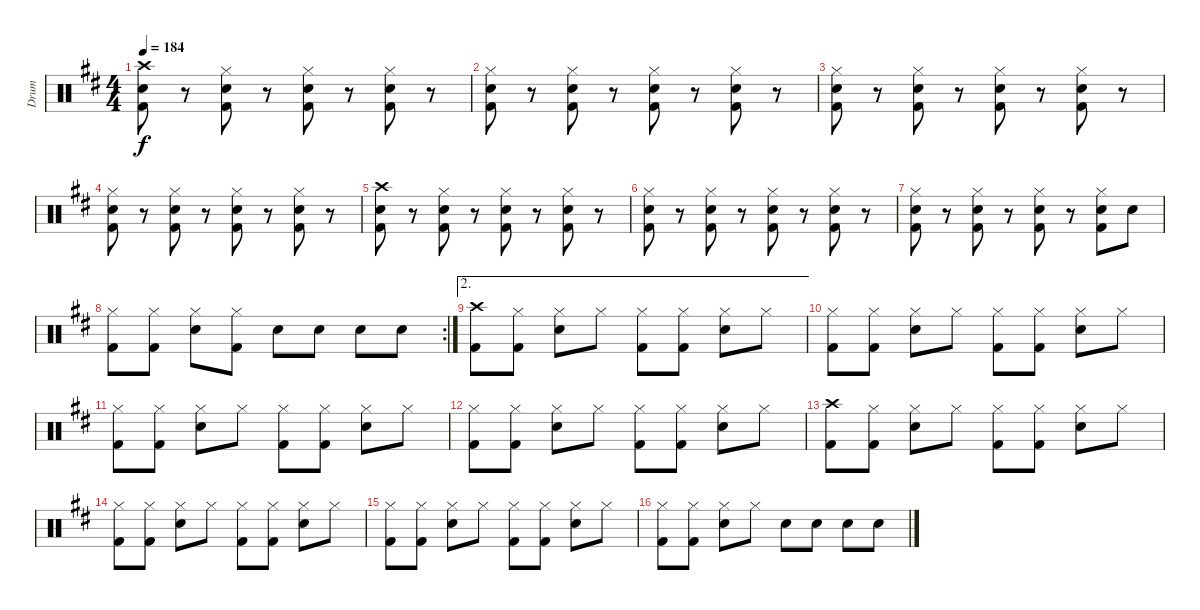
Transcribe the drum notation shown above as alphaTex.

\track ("Drum" "Drum") {instrument percussion}
\staff {score}
\articulation defaults
\ts (4 4)
\tempo 184
\clef neutral
\ks d
("Crash high (hit)" "Electric Snare (hit)" "Kick (hit) 2").8{dy f} r.8 ("Hi-Hat (closed)" "Electric Snare (hit)" "Kick (hit) 2").8 r.8 ("Hi-Hat (closed)" "Electric Snare (hit)" "Kick (hit) 2").8 r.8 ("Hi-Hat (closed)" "Electric Snare (hit)" "Kick (hit) 2").8 r.8 |
("Hi-Hat (closed)" "Electric Snare (hit)" "Kick (hit) 2").8 r.8 ("Hi-Hat (closed)" "Electric Snare (hit)" "Kick (hit) 2").8 r.8 ("Hi-Hat (closed)" "Electric Snare (hit)" "Kick (hit) 2").8 r.8 ("Hi-Hat (closed)" "Electric Snare (hit)" "Kick (hit) 2").8 r.8 |
("Hi-Hat (closed)" "Electric Snare (hit)" "Kick (hit) 2").8 r.8 ("Hi-Hat (closed)" "Electric Snare (hit)" "Kick (hit) 2").8 r.8 ("Hi-Hat (closed)" "Electric Snare (hit)" "Kick (hit) 2").8 r.8 ("Hi-Hat (closed)" "Electric Snare (hit)" "Kick (hit) 2").8 r.8 |
("Hi-Hat (closed)" "Electric Snare (hit)" "Kick (hit) 2").8 r.8 ("Hi-Hat (closed)" "Electric Snare (hit)" "Kick (hit) 2").8 r.8 ("Hi-Hat (closed)" "Electric Snare (hit)" "Kick (hit) 2").8 r.8 ("Hi-Hat (closed)" "Electric Snare (hit)" "Kick (hit) 2").8 r.8 |
("Crash high (hit)" "Electric Snare (hit)" "Kick (hit) 2").8 r.8 ("Hi-Hat (closed)" "Electric Snare (hit)" "Kick (hit) 2").8 r.8 ("Hi-Hat (closed)" "Electric Snare (hit)" "Kick (hit) 2").8 r.8 ("Hi-Hat (closed)" "Electric Snare (hit)" "Kick (hit) 2").8 r.8 |
("Hi-Hat (closed)" "Electric Snare (hit)" "Kick (hit) 2").8 r.8 ("Hi-Hat (closed)" "Electric Snare (hit)" "Kick (hit) 2").8 r.8 ("Hi-Hat (closed)" "Electric Snare (hit)" "Kick (hit) 2").8 r.8 ("Hi-Hat (closed)" "Electric Snare (hit)" "Kick (hit) 2").8 r.8 |
("Hi-Hat (closed)" "Electric Snare (hit)" "Kick (hit) 2").8 r.8 ("Hi-Hat (closed)" "Electric Snare (hit)" "Kick (hit) 2").8 r.8 ("Hi-Hat (closed)" "Electric Snare (hit)" "Kick (hit) 2").8 r.8 ("Hi-Hat (closed)" "Electric Snare (hit)" "Kick (hit) 2").8 "Electric Snare (hit)".8 |
\rc 2
("Hi-Hat (closed)" "Kick (hit) 2").8 ("Hi-Hat (closed)" "Kick (hit) 2").8 ("Hi-Hat (closed)" "Electric Snare (hit)").8 ("Hi-Hat (closed)" "Kick (hit) 2").8 "Electric Snare (hit)".8 "Electric Snare (hit)".8 "Electric Snare (hit)".8 "Electric Snare (hit)".8 |
\ae 2
("Crash high (hit)" "Kick (hit) 2").8 ("Hi-Hat (closed)" "Kick (hit) 2").8 ("Hi-Hat (closed)" "Electric Snare (hit)").8 "Hi-Hat (closed)".8 ("Hi-Hat (closed)" "Kick (hit) 2").8 ("Hi-Hat (closed)" "Kick (hit) 2").8 ("Hi-Hat (closed)" "Electric Snare (hit)").8 "Hi-Hat (closed)".8 |
("Hi-Hat (closed)" "Kick (hit) 2").8 ("Hi-Hat (closed)" "Kick (hit) 2").8 ("Hi-Hat (closed)" "Electric Snare (hit)").8 "Hi-Hat (closed)".8 ("Hi-Hat (closed)" "Kick (hit) 2").8 ("Hi-Hat (closed)" "Kick (hit) 2").8 ("Hi-Hat (closed)" "Electric Snare (hit)").8 "Hi-Hat (closed)".8 |
("Hi-Hat (closed)" "Kick (hit) 2").8 ("Hi-Hat (closed)" "Kick (hit) 2").8 ("Hi-Hat (closed)" "Electric Snare (hit)").8 "Hi-Hat (closed)".8 ("Hi-Hat (closed)" "Kick (hit) 2").8 ("Hi-Hat (closed)" "Kick (hit) 2").8 ("Hi-Hat (closed)" "Electric Snare (hit)").8 "Hi-Hat (closed)".8 |
("Hi-Hat (closed)" "Kick (hit) 2").8 ("Hi-Hat (closed)" "Kick (hit) 2").8 ("Hi-Hat (closed)" "Electric Snare (hit)").8 "Hi-Hat (closed)".8 ("Hi-Hat (closed)" "Kick (hit) 2").8 ("Hi-Hat (closed)" "Kick (hit) 2").8 ("Hi-Hat (closed)" "Electric Snare (hit)").8 "Hi-Hat (closed)".8 |
("Crash high (hit)" "Kick (hit) 2").8 ("Hi-Hat (closed)" "Kick (hit) 2").8 ("Hi-Hat (closed)" "Electric Snare (hit)").8 "Hi-Hat (closed)".8 ("Hi-Hat (closed)" "Kick (hit) 2").8 ("Hi-Hat (closed)" "Kick (hit) 2").8 ("Hi-Hat (closed)" "Electric Snare (hit)").8 "Hi-Hat (closed)".8 |
("Hi-Hat (closed)" "Kick (hit) 2").8 ("Hi-Hat (closed)" "Kick (hit) 2").8 ("Hi-Hat (closed)" "Electric Snare (hit)").8 "Hi-Hat (closed)".8 ("Hi-Hat (closed)" "Kick (hit) 2").8 ("Hi-Hat (closed)" "Kick (hit) 2").8 ("Hi-Hat (closed)" "Electric Snare (hit)").8 "Hi-Hat (closed)".8 |
("Hi-Hat (closed)" "Kick (hit) 2").8 ("Hi-Hat (closed)" "Kick (hit) 2").8 ("Hi-Hat (closed)" "Electric Snare (hit)").8 "Hi-Hat (closed)".8 ("Hi-Hat (closed)" "Kick (hit) 2").8 ("Hi-Hat (closed)" "Kick (hit) 2").8 ("Hi-Hat (closed)" "Electric Snare (hit)").8 "Hi-Hat (closed)".8 |
("Hi-Hat (closed)" "Kick (hit) 2").8 ("Hi-Hat (closed)" "Kick (hit) 2").8 ("Hi-Hat (closed)" "Electric Snare (hit)").8 "Hi-Hat (closed)".8 "Electric Snare (hit)".8 "Electric Snare (hit)".8 "Electric Snare (hit)".8 "Electric Snare (hit)".8
